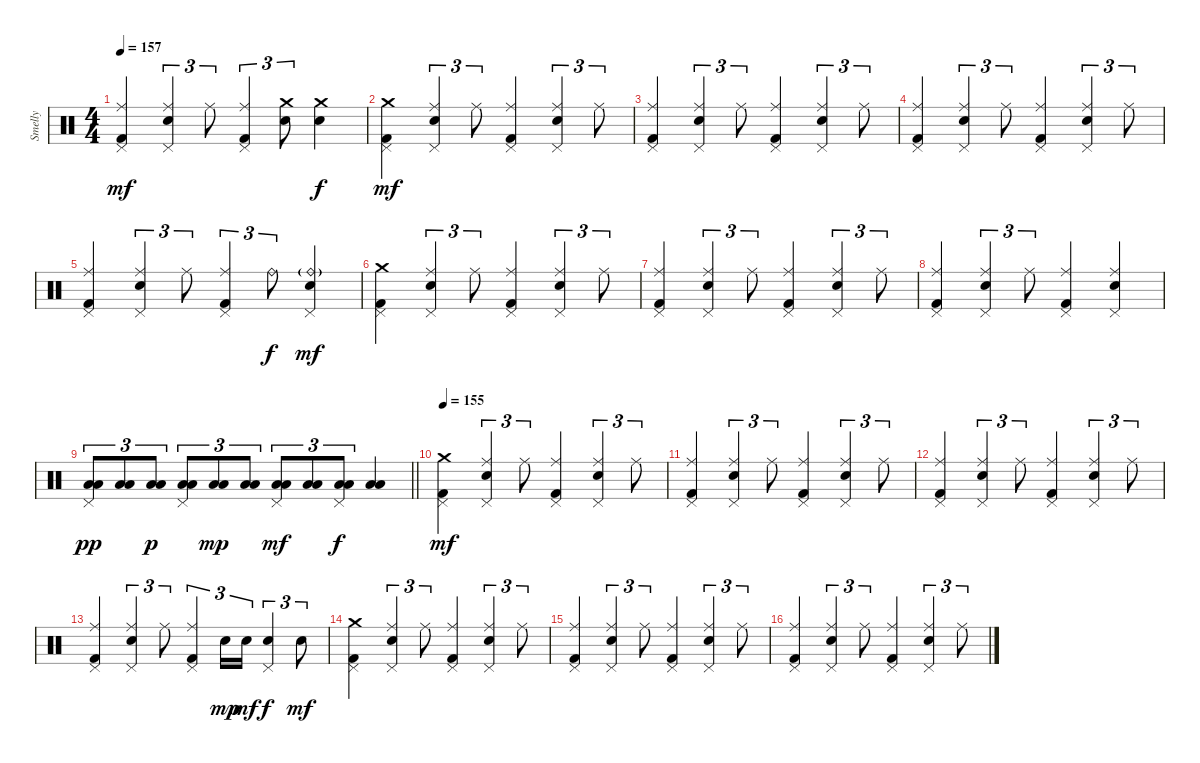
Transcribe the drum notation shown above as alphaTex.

\track ("Smelly" "Smelly") {instrument percussion}
\staff {score}
\articulation defaults
\ts (4 4)
\tempo 157
\clef neutral
\ks c
("Pedal Hi-Hat (hit)" "Ride (middle)" "Kick (hit) 2").4{dy mf} ("Pedal Hi-Hat (hit)" "Ride (middle)" "Electric Snare (hit)").4{tu (3 2)} "Ride (middle)".8{tu (3 2)} ("Pedal Hi-Hat (hit)" "Ride (middle)" "Kick (hit) 2").4{tu (3 2)} ("Crash medium (hit)" "Electric Snare (hit)").8{tu (3 2)} ("Crash medium (hit)" "Electric Snare (hit)").4{dy f} |
("Pedal Hi-Hat (hit)" "Crash medium (hit)" "Kick (hit) 2").4{dy mf} ("Pedal Hi-Hat (hit)" "Ride (middle)" "Electric Snare (hit)").4{tu (3 2)} "Ride (middle)".8{tu (3 2)} ("Pedal Hi-Hat (hit)" "Ride (middle)" "Kick (hit) 2").4 ("Pedal Hi-Hat (hit)" "Ride (middle)" "Electric Snare (hit)").4{tu (3 2)} "Ride (middle)".8{tu (3 2)} |
("Pedal Hi-Hat (hit)" "Ride (middle)" "Kick (hit) 2").4 ("Pedal Hi-Hat (hit)" "Ride (middle)" "Electric Snare (hit)").4{tu (3 2)} "Ride (middle)".8{tu (3 2)} ("Pedal Hi-Hat (hit)" "Ride (middle)" "Kick (hit) 2").4 ("Pedal Hi-Hat (hit)" "Ride (middle)" "Electric Snare (hit)").4{tu (3 2)} "Ride (middle)".8{tu (3 2)} |
("Pedal Hi-Hat (hit)" "Ride (middle)" "Kick (hit) 2").4 ("Pedal Hi-Hat (hit)" "Ride (middle)" "Electric Snare (hit)").4{tu (3 2)} "Ride (middle)".8{tu (3 2)} ("Pedal Hi-Hat (hit)" "Ride (middle)" "Kick (hit) 2").4 ("Pedal Hi-Hat (hit)" "Ride (middle)" "Electric Snare (hit)").4{tu (3 2)} "Ride (middle)".8{tu (3 2)} |
("Pedal Hi-Hat (hit)" "Ride (middle)" "Kick (hit) 2").4 ("Pedal Hi-Hat (hit)" "Ride (middle)" "Electric Snare (hit)").4{tu (3 2)} "Ride (middle)".8{tu (3 2)} ("Pedal Hi-Hat (hit)" "Ride (middle)" "Kick (hit) 2").4{tu (3 2)} "Ride (bell)".8{tu (3 2) dy f} ("Pedal Hi-Hat (hit)" "Ride (bell)"{g} "Electric Snare (hit)").4{dy mf} |
("Pedal Hi-Hat (hit)" "Crash medium (hit)" "Kick (hit) 2").4 ("Pedal Hi-Hat (hit)" "Ride (middle)" "Electric Snare (hit)").4{tu (3 2)} "Ride (middle)".8{tu (3 2)} ("Pedal Hi-Hat (hit)" "Ride (middle)" "Kick (hit) 2").4 ("Pedal Hi-Hat (hit)" "Ride (middle)" "Electric Snare (hit)").4{tu (3 2)} "Ride (middle)".8{tu (3 2)} |
("Pedal Hi-Hat (hit)" "Ride (middle)" "Kick (hit) 2").4 ("Pedal Hi-Hat (hit)" "Ride (middle)" "Electric Snare (hit)").4{tu (3 2)} "Ride (middle)".8{tu (3 2)} ("Pedal Hi-Hat (hit)" "Ride (middle)" "Kick (hit) 2").4 ("Pedal Hi-Hat (hit)" "Ride (middle)" "Electric Snare (hit)").4{tu (3 2)} "Ride (middle)".8{tu (3 2)} |
("Pedal Hi-Hat (hit)" "Ride (middle)" "Kick (hit) 2").4 ("Pedal Hi-Hat (hit)" "Ride (middle)" "Electric Snare (hit)").4{tu (3 2)} "Ride (middle)".8{tu (3 2)} ("Pedal Hi-Hat (hit)" "Ride (middle)" "Kick (hit) 2").4 ("Pedal Hi-Hat (hit)" "Ride (middle)" "Electric Snare (hit)").4 |
\barLineRight lightlight
("Pedal Hi-Hat (hit)" "Low Tom (hit)" "Low Floor Tom (hit)").8{tu (3 2) dy pp} ("Low Tom (hit)" "Low Floor Tom (hit)").8{tu (3 2)} ("Low Tom (hit)" "Low Floor Tom (hit)").8{tu (3 2) dy p} ("Pedal Hi-Hat (hit)" "Low Tom (hit)" "Low Floor Tom (hit)").8{tu (3 2)} ("Low Tom (hit)" "Low Floor Tom (hit)").8{tu (3 2) dy mp} ("Low Tom (hit)" "Low Floor Tom (hit)").8{tu (3 2)} ("Pedal Hi-Hat (hit)" "Low Tom (hit)" "Low Floor Tom (hit)").8{tu (3 2) dy mf} ("Low Tom (hit)" "Low Floor Tom (hit)").8{tu (3 2)} ("Pedal Hi-Hat (hit)" "Low Tom (hit)" "Low Floor Tom (hit)").8{tu (3 2) dy f} ("Low Tom (hit)" "Low Floor Tom (hit)").4 |
\section ("" "")
\tempo 155
("Pedal Hi-Hat (hit)" "Crash medium (hit)" "Kick (hit) 2").4{dy mf} ("Pedal Hi-Hat (hit)" "Ride (middle)" "Electric Snare (hit)").4{tu (3 2)} "Ride (middle)".8{tu (3 2)} ("Pedal Hi-Hat (hit)" "Ride (middle)" "Kick (hit) 2").4 ("Pedal Hi-Hat (hit)" "Ride (middle)" "Electric Snare (hit)").4{tu (3 2)} "Ride (middle)".8{tu (3 2)} |
("Pedal Hi-Hat (hit)" "Ride (middle)" "Kick (hit) 2").4 ("Pedal Hi-Hat (hit)" "Ride (middle)" "Electric Snare (hit)").4{tu (3 2)} "Ride (middle)".8{tu (3 2)} ("Pedal Hi-Hat (hit)" "Ride (middle)" "Kick (hit) 2").4 ("Pedal Hi-Hat (hit)" "Ride (middle)" "Electric Snare (hit)").4{tu (3 2)} "Ride (middle)".8{tu (3 2)} |
("Pedal Hi-Hat (hit)" "Ride (middle)" "Kick (hit) 2").4 ("Pedal Hi-Hat (hit)" "Ride (middle)" "Electric Snare (hit)").4{tu (3 2)} "Ride (middle)".8{tu (3 2)} ("Pedal Hi-Hat (hit)" "Ride (middle)" "Kick (hit) 2").4 ("Pedal Hi-Hat (hit)" "Ride (middle)" "Electric Snare (hit)").4{tu (3 2)} "Ride (middle)".8{tu (3 2)} |
("Pedal Hi-Hat (hit)" "Ride (middle)" "Kick (hit) 2").4 ("Pedal Hi-Hat (hit)" "Ride (middle)" "Electric Snare (hit)").4{tu (3 2)} "Ride (middle)".8{tu (3 2)} ("Pedal Hi-Hat (hit)" "Ride (middle)" "Kick (hit) 2").4{tu (3 2)} "Electric Snare (hit)".16{tu (3 2) dy mp} "Electric Snare (hit)".16{tu (3 2) dy mf} ("Pedal Hi-Hat (hit)" "Electric Snare (hit)").4{tu (3 2) dy f} "Electric Snare (hit)".8{tu (3 2) dy mf} |
("Pedal Hi-Hat (hit)" "Crash medium (hit)" "Kick (hit) 2").4 ("Pedal Hi-Hat (hit)" "Ride (middle)" "Electric Snare (hit)").4{tu (3 2)} "Ride (middle)".8{tu (3 2)} ("Pedal Hi-Hat (hit)" "Ride (middle)" "Kick (hit) 2").4 ("Pedal Hi-Hat (hit)" "Ride (middle)" "Electric Snare (hit)").4{tu (3 2)} "Ride (middle)".8{tu (3 2)} |
("Pedal Hi-Hat (hit)" "Ride (middle)" "Kick (hit) 2").4 ("Pedal Hi-Hat (hit)" "Ride (middle)" "Electric Snare (hit)").4{tu (3 2)} "Ride (middle)".8{tu (3 2)} ("Pedal Hi-Hat (hit)" "Ride (middle)" "Kick (hit) 2").4 ("Pedal Hi-Hat (hit)" "Ride (middle)" "Electric Snare (hit)").4{tu (3 2)} "Ride (middle)".8{tu (3 2)} |
("Pedal Hi-Hat (hit)" "Ride (middle)" "Kick (hit) 2").4 ("Pedal Hi-Hat (hit)" "Ride (middle)" "Electric Snare (hit)").4{tu (3 2)} "Ride (middle)".8{tu (3 2)} ("Pedal Hi-Hat (hit)" "Ride (middle)" "Kick (hit) 2").4 ("Pedal Hi-Hat (hit)" "Ride (middle)" "Electric Snare (hit)").4{tu (3 2)} "Ride (middle)".8{tu (3 2)}
